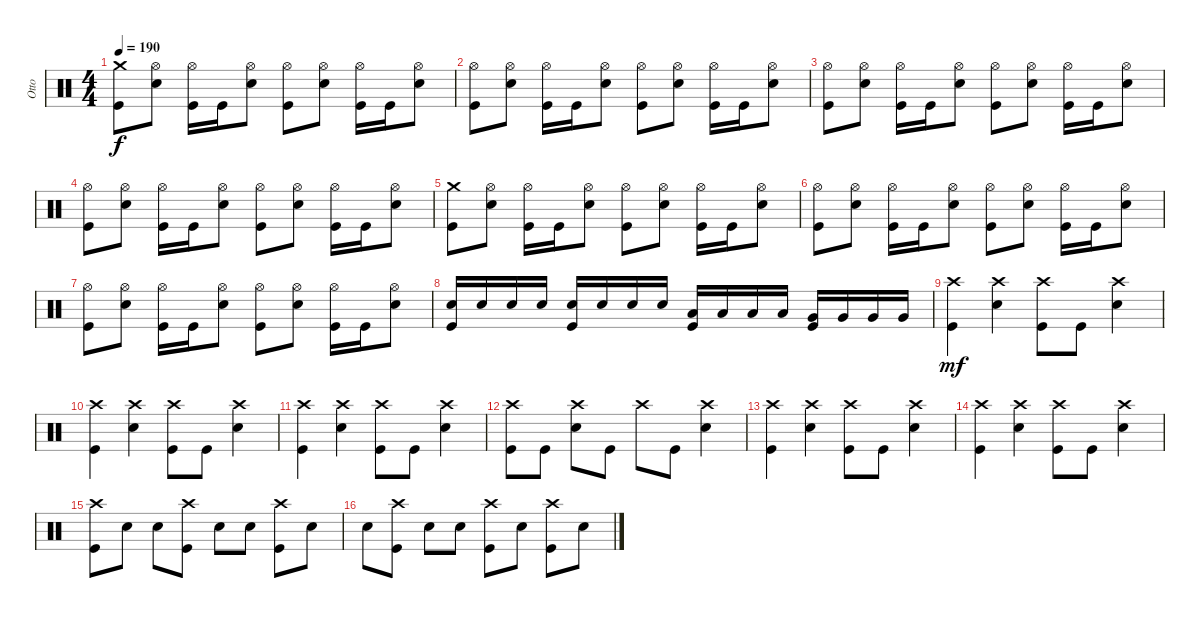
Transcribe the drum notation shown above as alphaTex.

\track ("Otto" "Otto") {instrument percussion}
\staff {score}
\articulation defaults
\ts (4 4)
\tempo 190
\clef neutral
\ks c
("Crash medium (hit)" "Kick (hit)").8{dy f} ("Hi-Hat (open)" "Snare (hit) 2").8 ("Hi-Hat (open)" "Kick (hit)").16 "Kick (hit)".16 ("Hi-Hat (open)" "Snare (hit) 2").8 ("Hi-Hat (open)" "Kick (hit)").8 ("Hi-Hat (open)" "Snare (hit) 2").8 ("Hi-Hat (open)" "Kick (hit)").16 "Kick (hit)".16 ("Hi-Hat (open)" "Snare (hit) 2").8 |
("Hi-Hat (open)" "Kick (hit)").8 ("Hi-Hat (open)" "Snare (hit) 2").8 ("Hi-Hat (open)" "Kick (hit)").16 "Kick (hit)".16 ("Hi-Hat (open)" "Snare (hit) 2").8 ("Hi-Hat (open)" "Kick (hit)").8 ("Hi-Hat (open)" "Snare (hit) 2").8 ("Hi-Hat (open)" "Kick (hit)").16 "Kick (hit)".16 ("Hi-Hat (open)" "Snare (hit) 2").8 |
("Hi-Hat (open)" "Kick (hit)").8 ("Hi-Hat (open)" "Snare (hit) 2").8 ("Hi-Hat (open)" "Kick (hit)").16 "Kick (hit)".16 ("Hi-Hat (open)" "Snare (hit) 2").8 ("Hi-Hat (open)" "Kick (hit)").8 ("Hi-Hat (open)" "Snare (hit) 2").8 ("Hi-Hat (open)" "Kick (hit)").16 "Kick (hit)".16 ("Hi-Hat (open)" "Snare (hit) 2").8 |
("Hi-Hat (open)" "Kick (hit)").8 ("Hi-Hat (open)" "Snare (hit) 2").8 ("Hi-Hat (open)" "Kick (hit)").16 "Kick (hit)".16 ("Hi-Hat (open)" "Snare (hit) 2").8 ("Hi-Hat (open)" "Kick (hit)").8 ("Hi-Hat (open)" "Snare (hit) 2").8 ("Hi-Hat (open)" "Kick (hit)").16 "Kick (hit)".16 ("Hi-Hat (open)" "Snare (hit) 2").8 |
("Crash medium (hit)" "Kick (hit)").8 ("Hi-Hat (open)" "Snare (hit) 2").8 ("Hi-Hat (open)" "Kick (hit)").16 "Kick (hit)".16 ("Hi-Hat (open)" "Snare (hit) 2").8 ("Hi-Hat (open)" "Kick (hit)").8 ("Hi-Hat (open)" "Snare (hit) 2").8 ("Hi-Hat (open)" "Kick (hit)").16 "Kick (hit)".16 ("Hi-Hat (open)" "Snare (hit) 2").8 |
("Hi-Hat (open)" "Kick (hit)").8 ("Hi-Hat (open)" "Snare (hit) 2").8 ("Hi-Hat (open)" "Kick (hit)").16 "Kick (hit)".16 ("Hi-Hat (open)" "Snare (hit) 2").8 ("Hi-Hat (open)" "Kick (hit)").8 ("Hi-Hat (open)" "Snare (hit) 2").8 ("Hi-Hat (open)" "Kick (hit)").16 "Kick (hit)".16 ("Hi-Hat (open)" "Snare (hit) 2").8 |
("Hi-Hat (open)" "Kick (hit)").8 ("Hi-Hat (open)" "Snare (hit) 2").8 ("Hi-Hat (open)" "Kick (hit)").16 "Kick (hit)".16 ("Hi-Hat (open)" "Snare (hit) 2").8 ("Hi-Hat (open)" "Kick (hit)").8 ("Hi-Hat (open)" "Snare (hit) 2").8 ("Hi-Hat (open)" "Kick (hit)").16 "Kick (hit)".16 ("Hi-Hat (open)" "Snare (hit) 2").8 |
("Snare (hit) 2" "Kick (hit)").16 "Snare (hit) 2".16 "Snare (hit) 2".16 "Snare (hit) 2".16 ("Snare (hit) 2" "Kick (hit)").16 "Snare (hit) 2".16 "Snare (hit) 2".16 "Snare (hit) 2".16 ("Low Tom (hit)" "Kick (hit)").16 "Low Tom (hit)".16 "Low Tom (hit)".16 "Low Tom (hit)".16 ("Very Low Tom (hit)" "Kick (hit)").16 "Very Low Tom (hit)".16 "Very Low Tom (hit)".16 "Very Low Tom (hit)".16 |
("Kick (hit)" "Crash high (hit)").4{dy mf} ("Snare (hit) 2" "Crash high (hit)").4 ("Kick (hit)" "Crash high (hit)").8 "Kick (hit)".8 ("Snare (hit) 2" "Crash high (hit)").4 |
("Kick (hit)" "Crash high (hit)").4 ("Snare (hit) 2" "Crash high (hit)").4 ("Kick (hit)" "Crash high (hit)").8 "Kick (hit)".8 ("Snare (hit) 2" "Crash high (hit)").4 |
("Kick (hit)" "Crash high (hit)").4 ("Snare (hit) 2" "Crash high (hit)").4 ("Kick (hit)" "Crash high (hit)").8 "Kick (hit)".8 ("Snare (hit) 2" "Crash high (hit)").4 |
("Kick (hit)" "Crash high (hit)").8 "Kick (hit)".8 ("Snare (hit) 2" "Crash high (hit)").8 "Kick (hit)".8 "Crash high (hit)".8 "Kick (hit)".8 ("Snare (hit) 2" "Crash high (hit)").4 |
("Kick (hit)" "Crash high (hit)").4 ("Snare (hit) 2" "Crash high (hit)").4 ("Kick (hit)" "Crash high (hit)").8 "Kick (hit)".8 ("Snare (hit) 2" "Crash high (hit)").4 |
("Kick (hit)" "Crash high (hit)").4 ("Snare (hit) 2" "Crash high (hit)").4 ("Kick (hit)" "Crash high (hit)").8 "Kick (hit)".8 ("Snare (hit) 2" "Crash high (hit)").4 |
("Crash high (hit)" "Kick (hit)").8 "Snare (hit) 2".8 "Snare (hit) 2".8 ("Crash high (hit)" "Kick (hit)").8 "Snare (hit) 2".8 "Snare (hit) 2".8 ("Crash high (hit)" "Kick (hit)").8 "Snare (hit) 2".8 |
"Snare (hit) 2".8 ("Crash high (hit)" "Kick (hit)").8 "Snare (hit) 2".8 "Snare (hit) 2".8 ("Crash high (hit)" "Kick (hit)").8 "Snare (hit) 2".8 ("Crash high (hit)" "Kick (hit)").8 "Snare (hit) 2".8
